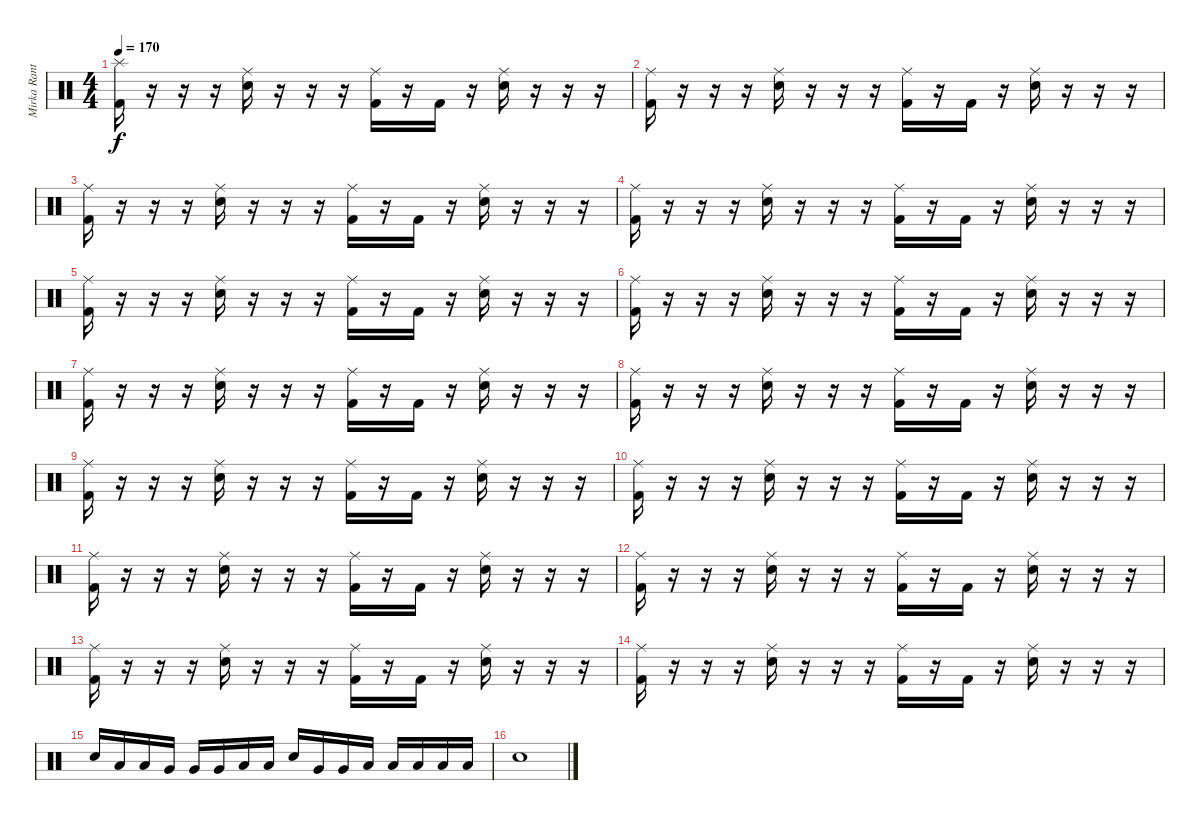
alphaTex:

\track ("Mirka Rantanen" "Mirka Rant") {instrument percussion}
\staff {score}
\articulation defaults
\ts (4 4)
\tempo 170
\clef neutral
\ks c
("Splash (hit)" "Kick (hit) 2").16{dy f} r.16 r.16 r.16 ("Ride (middle)" "Snare (hit) 2").16 r.16 r.16 r.16 ("Ride (middle)" "Kick (hit) 2").16 r.16 "Kick (hit) 2".16 r.16 ("Ride (middle)" "Snare (hit) 2").16 r.16 r.16 r.16 |
("Ride (middle)" "Kick (hit) 2").16 r.16 r.16 r.16 ("Ride (middle)" "Snare (hit) 2").16 r.16 r.16 r.16 ("Ride (middle)" "Kick (hit) 2").16 r.16 "Kick (hit) 2".16 r.16 ("Ride (middle)" "Snare (hit) 2").16 r.16 r.16 r.16 |
("Ride (middle)" "Kick (hit) 2").16 r.16 r.16 r.16 ("Ride (middle)" "Snare (hit) 2").16 r.16 r.16 r.16 ("Ride (middle)" "Kick (hit) 2").16 r.16 "Kick (hit) 2".16 r.16 ("Ride (middle)" "Snare (hit) 2").16 r.16 r.16 r.16 |
("Ride (middle)" "Kick (hit) 2").16 r.16 r.16 r.16 ("Ride (middle)" "Snare (hit) 2").16 r.16 r.16 r.16 ("Ride (middle)" "Kick (hit) 2").16 r.16 "Kick (hit) 2".16 r.16 ("Ride (middle)" "Snare (hit) 2").16 r.16 r.16 r.16 |
("Ride (middle)" "Kick (hit) 2").16 r.16 r.16 r.16 ("Ride (middle)" "Snare (hit) 2").16 r.16 r.16 r.16 ("Ride (middle)" "Kick (hit) 2").16 r.16 "Kick (hit) 2".16 r.16 ("Ride (middle)" "Snare (hit) 2").16 r.16 r.16 r.16 |
("Ride (middle)" "Kick (hit) 2").16 r.16 r.16 r.16 ("Ride (middle)" "Snare (hit) 2").16 r.16 r.16 r.16 ("Ride (middle)" "Kick (hit) 2").16 r.16 "Kick (hit) 2".16 r.16 ("Ride (middle)" "Snare (hit) 2").16 r.16 r.16 r.16 |
("Ride (middle)" "Kick (hit) 2").16 r.16 r.16 r.16 ("Ride (middle)" "Snare (hit) 2").16 r.16 r.16 r.16 ("Ride (middle)" "Kick (hit) 2").16 r.16 "Kick (hit) 2".16 r.16 ("Ride (middle)" "Snare (hit) 2").16 r.16 r.16 r.16 |
("Ride (middle)" "Kick (hit) 2").16 r.16 r.16 r.16 ("Ride (middle)" "Snare (hit) 2").16 r.16 r.16 r.16 ("Ride (middle)" "Kick (hit) 2").16 r.16 "Kick (hit) 2".16 r.16 ("Ride (middle)" "Snare (hit) 2").16 r.16 r.16 r.16 |
("Ride (middle)" "Kick (hit) 2").16 r.16 r.16 r.16 ("Ride (middle)" "Snare (hit) 2").16 r.16 r.16 r.16 ("Ride (middle)" "Kick (hit) 2").16 r.16 "Kick (hit) 2".16 r.16 ("Ride (middle)" "Snare (hit) 2").16 r.16 r.16 r.16 |
("Ride (middle)" "Kick (hit) 2").16 r.16 r.16 r.16 ("Ride (middle)" "Snare (hit) 2").16 r.16 r.16 r.16 ("Ride (middle)" "Kick (hit) 2").16 r.16 "Kick (hit) 2".16 r.16 ("Ride (middle)" "Snare (hit) 2").16 r.16 r.16 r.16 |
("Ride (middle)" "Kick (hit) 2").16 r.16 r.16 r.16 ("Ride (middle)" "Snare (hit) 2").16 r.16 r.16 r.16 ("Ride (middle)" "Kick (hit) 2").16 r.16 "Kick (hit) 2".16 r.16 ("Ride (middle)" "Snare (hit) 2").16 r.16 r.16 r.16 |
("Ride (middle)" "Kick (hit) 2").16 r.16 r.16 r.16 ("Ride (middle)" "Snare (hit) 2").16 r.16 r.16 r.16 ("Ride (middle)" "Kick (hit) 2").16 r.16 "Kick (hit) 2".16 r.16 ("Ride (middle)" "Snare (hit) 2").16 r.16 r.16 r.16 |
("Ride (middle)" "Kick (hit) 2").16 r.16 r.16 r.16 ("Ride (middle)" "Snare (hit) 2").16 r.16 r.16 r.16 ("Ride (middle)" "Kick (hit) 2").16 r.16 "Kick (hit) 2".16 r.16 ("Ride (middle)" "Snare (hit) 2").16 r.16 r.16 r.16 |
("Ride (middle)" "Kick (hit) 2").16 r.16 r.16 r.16 ("Ride (middle)" "Snare (hit) 2").16 r.16 r.16 r.16 ("Ride (middle)" "Kick (hit) 2").16 r.16 "Kick (hit) 2".16 r.16 ("Ride (middle)" "Snare (hit) 2").16 r.16 r.16 r.16 |
"Snare (hit) 2".16 "Low Tom (hit)".16 "Low Tom (hit)".16 "Very Low Tom (hit)".16 "Very Low Tom (hit)".16 "Very Low Tom (hit)".16 "Low Floor Tom (hit)".16 "Low Floor Tom (hit)".16 "Snare (hit) 2".16 "Very Low Tom (hit)".16 "Very Low Tom (hit)".16 "Low Tom (hit)".16 "Low Tom (hit)".16 "Low Floor Tom (hit)".16 "Low Floor Tom (hit)".16 "Low Floor Tom (hit)".16 |
"Snare (hit) 2".1
